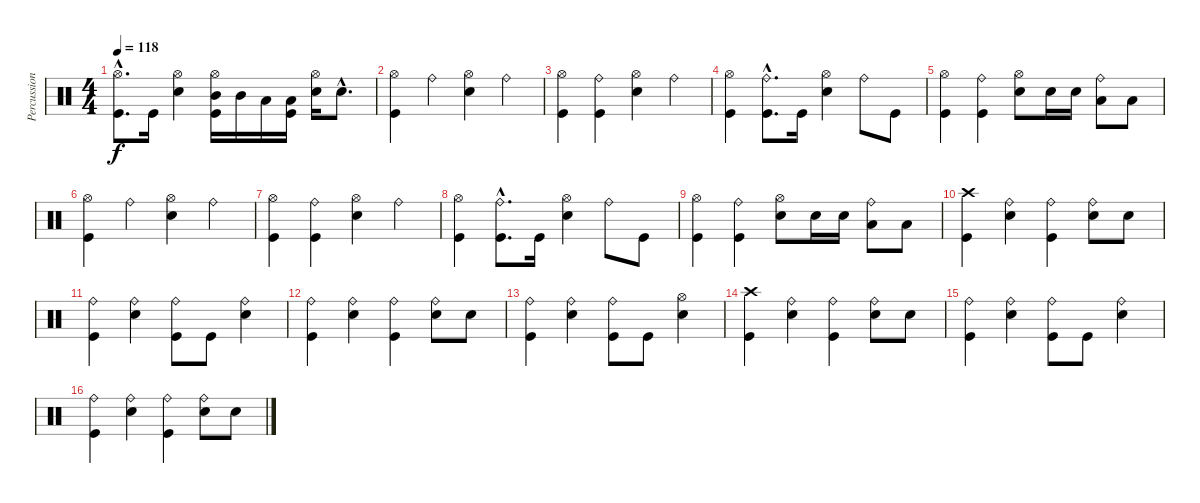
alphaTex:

\track ("Percussion" "Percussion") {instrument percussion}
\staff {score}
\articulation defaults
\ts (4 4)
\tempo 118
\clef neutral
\ks c
("Hi-Hat (open)"{hac} "Kick (hit)"{hac}).8{d dy f} "Kick (hit)".16 ("Hi-Hat (open)" "Snare (hit) 2").4 ("Hi-Hat (open)" "Mid Tom (hit)" "Kick (hit)").16 "Mid Tom (hit)".16 "Low Tom (hit)".16 ("Low Tom (hit)" "Kick (hit)").16 ("Hi-Hat (open)" "Snare (hit) 2").16 "Electric Snare (hit)"{hac}.8{d} |
("Hi-Hat (open)" "Kick (hit)").4 "Ride (bell)".4 ("Hi-Hat (open)" "Snare (hit) 2").4 "Ride (bell)".4 |
("Hi-Hat (open)" "Kick (hit)").4 ("Ride (bell)" "Kick (hit)").4 ("Hi-Hat (open)" "Snare (hit) 2").4 "Ride (bell)".4 |
("Hi-Hat (open)" "Kick (hit)").4 ("Ride (bell)"{hac} "Kick (hit)"{hac}).8{d} "Kick (hit)".16 ("Hi-Hat (open)" "Snare (hit) 2").4 "Ride (bell)".8 "Kick (hit)".8 |
("Hi-Hat (open)" "Kick (hit)").4 ("Ride (bell)" "Kick (hit)").4 ("Hi-Hat (open)" "Snare (hit) 2").8 "Snare (hit) 2".16 "Electric Snare (hit)".16 ("Ride (bell)" "Low Tom (hit)").8 "Low Tom (hit)".8 |
("Hi-Hat (open)" "Kick (hit)").4 "Ride (bell)".4 ("Hi-Hat (open)" "Snare (hit) 2").4 "Ride (bell)".4 |
("Hi-Hat (open)" "Kick (hit)").4 ("Ride (bell)" "Kick (hit)").4 ("Hi-Hat (open)" "Snare (hit) 2").4 "Ride (bell)".4 |
("Hi-Hat (open)" "Kick (hit)").4 ("Ride (bell)"{hac} "Kick (hit)"{hac}).8{d} "Kick (hit)".16 ("Hi-Hat (open)" "Snare (hit) 2").4 "Ride (bell)".8 "Kick (hit)".8 |
("Hi-Hat (open)" "Kick (hit)").4 ("Ride (bell)" "Kick (hit)").4 ("Hi-Hat (open)" "Snare (hit) 2").8 "Snare (hit) 2".16 "Electric Snare (hit)".16 ("Ride (bell)" "Low Tom (hit)").8 "Low Tom (hit)".8 |
("Crash high (hit)" "Kick (hit)").4 ("Ride (bell)" "Electric Snare (hit)").4 ("Ride (bell)" "Kick (hit)").4 ("Ride (bell)" "Electric Snare (hit)").8 "Electric Snare (hit)".8 |
("Ride (bell)" "Kick (hit)").4 ("Ride (bell)" "Electric Snare (hit)").4 ("Ride (bell)" "Kick (hit)").8 "Kick (hit)".8 ("Ride (bell)" "Electric Snare (hit)").4 |
("Ride (bell)" "Kick (hit)").4 ("Ride (bell)" "Electric Snare (hit)").4 ("Ride (bell)" "Kick (hit)").4 ("Ride (bell)" "Electric Snare (hit)").8 "Electric Snare (hit)".8 |
("Ride (bell)" "Kick (hit)").4 ("Ride (bell)" "Electric Snare (hit)").4 ("Ride (bell)" "Kick (hit)").8 "Kick (hit)".8 ("Hi-Hat (open)" "Electric Snare (hit)").4 |
("Crash high (hit)" "Kick (hit)").4 ("Ride (bell)" "Electric Snare (hit)").4 ("Ride (bell)" "Kick (hit)").4 ("Ride (bell)" "Electric Snare (hit)").8 "Electric Snare (hit)".8 |
("Ride (bell)" "Kick (hit)").4 ("Ride (bell)" "Electric Snare (hit)").4 ("Ride (bell)" "Kick (hit)").8 "Kick (hit)".8 ("Ride (bell)" "Electric Snare (hit)").4 |
("Ride (bell)" "Kick (hit)").4 ("Ride (bell)" "Electric Snare (hit)").4 ("Ride (bell)" "Kick (hit)").4 ("Ride (bell)" "Electric Snare (hit)").8 "Electric Snare (hit)".8
